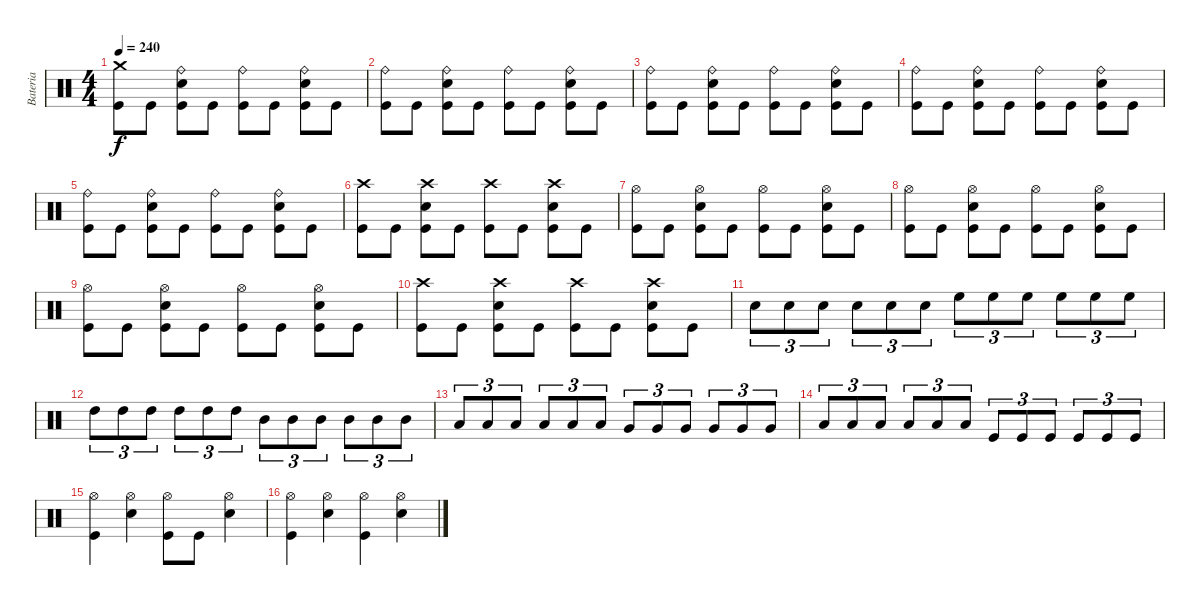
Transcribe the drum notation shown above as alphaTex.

\track ("Bateria" "Bateria") {instrument percussion}
\staff {score}
\articulation defaults
\ts (4 4)
\tempo 240
\clef neutral
\ks c
("Kick (hit)" "Crash medium (hit)").8{dy f} "Kick (hit)".8 ("Kick (hit)" "Electric Snare (hit)" "Ride (bell)").8 "Kick (hit)".8 ("Kick (hit)" "Ride (bell)").8 "Kick (hit)".8 ("Kick (hit)" "Electric Snare (hit)" "Ride (bell)").8 "Kick (hit)".8 |
("Kick (hit)" "Ride (bell)").8 "Kick (hit)".8 ("Kick (hit)" "Electric Snare (hit)" "Ride (bell)").8 "Kick (hit)".8 ("Kick (hit)" "Ride (bell)").8 "Kick (hit)".8 ("Kick (hit)" "Electric Snare (hit)" "Ride (bell)").8 "Kick (hit)".8 |
("Kick (hit)" "Ride (bell)").8 "Kick (hit)".8 ("Kick (hit)" "Electric Snare (hit)" "Ride (bell)").8 "Kick (hit)".8 ("Kick (hit)" "Ride (bell)").8 "Kick (hit)".8 ("Kick (hit)" "Electric Snare (hit)" "Ride (bell)").8 "Kick (hit)".8 |
("Kick (hit)" "Ride (bell)").8 "Kick (hit)".8 ("Kick (hit)" "Electric Snare (hit)" "Ride (bell)").8 "Kick (hit)".8 ("Kick (hit)" "Ride (bell)").8 "Kick (hit)".8 ("Kick (hit)" "Electric Snare (hit)" "Ride (bell)").8 "Kick (hit)".8 |
("Kick (hit)" "Ride (bell)").8 "Kick (hit)".8 ("Kick (hit)" "Electric Snare (hit)" "Ride (bell)").8 "Kick (hit)".8 ("Kick (hit)" "Ride (bell)").8 "Kick (hit)".8 ("Kick (hit)" "Electric Snare (hit)" "Ride (bell)").8 "Kick (hit)".8 |
("Kick (hit)" "Crash high (hit)").8 "Kick (hit)".8 ("Kick (hit)" "Electric Snare (hit)" "Crash high (hit)").8 "Kick (hit)".8 ("Kick (hit)" "Crash high (hit)").8 "Kick (hit)".8 ("Kick (hit)" "Electric Snare (hit)" "Crash high (hit)").8 "Kick (hit)".8 |
("Kick (hit)" "Hi-Hat (open)").8 "Kick (hit)".8 ("Kick (hit)" "Electric Snare (hit)" "Hi-Hat (open)").8 "Kick (hit)".8 ("Kick (hit)" "Hi-Hat (open)").8 "Kick (hit)".8 ("Kick (hit)" "Electric Snare (hit)" "Hi-Hat (open)").8 "Kick (hit)".8 |
("Kick (hit)" "Hi-Hat (open)").8 "Kick (hit)".8 ("Kick (hit)" "Electric Snare (hit)" "Hi-Hat (open)").8 "Kick (hit)".8 ("Kick (hit)" "Hi-Hat (open)").8 "Kick (hit)".8 ("Kick (hit)" "Electric Snare (hit)" "Hi-Hat (open)").8 "Kick (hit)".8 |
("Kick (hit)" "Hi-Hat (open)").8 "Kick (hit)".8 ("Kick (hit)" "Electric Snare (hit)" "Hi-Hat (open)").8 "Kick (hit)".8 ("Kick (hit)" "Hi-Hat (open)").8 "Kick (hit)".8 ("Kick (hit)" "Electric Snare (hit)" "Hi-Hat (open)").8 "Kick (hit)".8 |
("Kick (hit)" "Crash high (hit)").8 "Kick (hit)".8 ("Kick (hit)" "Electric Snare (hit)" "Crash high (hit)").8 "Kick (hit)".8 ("Kick (hit)" "Crash high (hit)").8 "Kick (hit)".8 ("Kick (hit)" "Electric Snare (hit)" "Crash high (hit)").8 "Kick (hit)".8 |
"Electric Snare (hit)".8{tu (3 2)} "Electric Snare (hit)".8{tu (3 2)} "Electric Snare (hit)".8{tu (3 2)} "Electric Snare (hit)".8{tu (3 2)} "Electric Snare (hit)".8{tu (3 2)} "Electric Snare (hit)".8{tu (3 2)} "High Floor Tom (hit)".8{tu (3 2)} "High Floor Tom (hit)".8{tu (3 2)} "High Floor Tom (hit)".8{tu (3 2)} "High Floor Tom (hit)".8{tu (3 2)} "High Floor Tom (hit)".8{tu (3 2)} "High Floor Tom (hit)".8{tu (3 2)} |
"High Tom (hit)".8{tu (3 2)} "High Tom (hit)".8{tu (3 2)} "High Tom (hit)".8{tu (3 2)} "High Tom (hit)".8{tu (3 2)} "High Tom (hit)".8{tu (3 2)} "High Tom (hit)".8{tu (3 2)} "Mid Tom (hit)".8{tu (3 2)} "Mid Tom (hit)".8{tu (3 2)} "Mid Tom (hit)".8{tu (3 2)} "Mid Tom (hit)".8{tu (3 2)} "Mid Tom (hit)".8{tu (3 2)} "Mid Tom (hit)".8{tu (3 2)} |
"Low Tom (hit)".8{tu (3 2)} "Low Tom (hit)".8{tu (3 2)} "Low Tom (hit)".8{tu (3 2)} "Low Tom (hit)".8{tu (3 2)} "Low Tom (hit)".8{tu (3 2)} "Low Tom (hit)".8{tu (3 2)} "Very Low Tom (hit)".8{tu (3 2)} "Very Low Tom (hit)".8{tu (3 2)} "Very Low Tom (hit)".8{tu (3 2)} "Very Low Tom (hit)".8{tu (3 2)} "Very Low Tom (hit)".8{tu (3 2)} "Very Low Tom (hit)".8{tu (3 2)} |
"Low Floor Tom (hit)".8{tu (3 2)} "Low Floor Tom (hit)".8{tu (3 2)} "Low Floor Tom (hit)".8{tu (3 2)} "Low Floor Tom (hit)".8{tu (3 2)} "Low Floor Tom (hit)".8{tu (3 2)} "Low Floor Tom (hit)".8{tu (3 2)} "Kick (hit)".8{tu (3 2)} "Kick (hit)".8{tu (3 2)} "Kick (hit)".8{tu (3 2)} "Kick (hit)".8{tu (3 2)} "Kick (hit)".8{tu (3 2)} "Kick (hit)".8{tu (3 2)} |
("Kick (hit)" "Hi-Hat (open)").4 ("Electric Snare (hit)" "Hi-Hat (open)").4 ("Kick (hit)" "Hi-Hat (open)").8 "Kick (hit)".8 ("Electric Snare (hit)" "Hi-Hat (open)").4 |
("Kick (hit)" "Hi-Hat (open)").4 ("Electric Snare (hit)" "Hi-Hat (open)").4 ("Kick (hit)" "Hi-Hat (open)").4 ("Electric Snare (hit)" "Hi-Hat (open)").4
